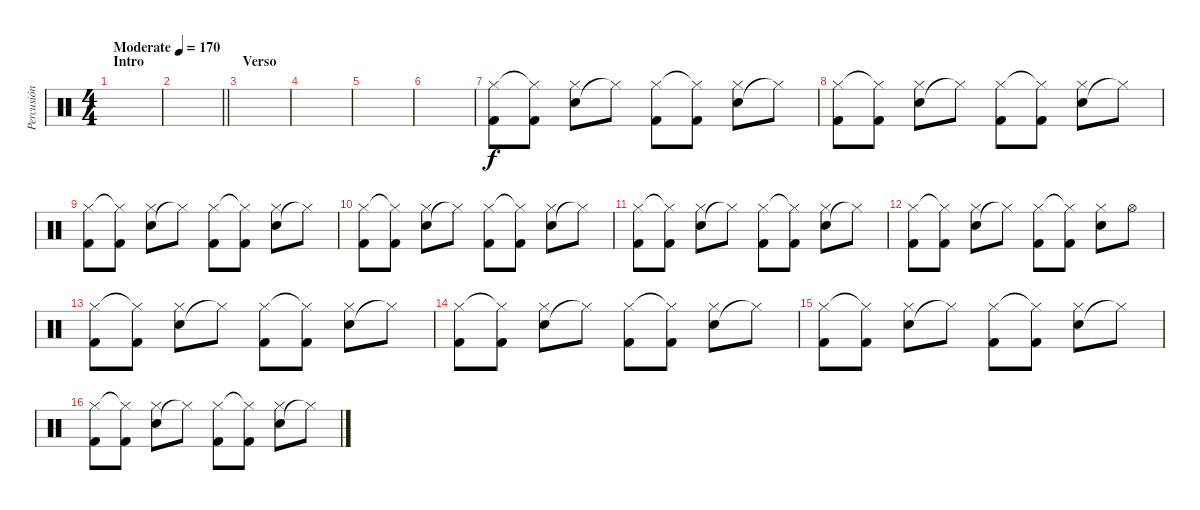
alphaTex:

\track ("Percusión" "Percusión") {instrument percussion}
\staff {score}
\articulation defaults
\ts (4 4)
\section ("" "Intro")
\tempo (170 "Moderate")
\clef neutral
\ks c
|
\barLineRight lightlight
|
\section ("" "Verso")
|
|
|
|
("Kick (hit) 2" "Hi-Hat (closed)").8 ("Kick (hit) 2" "Hi-Hat (closed)"{t}).8 ("Snare (hit) 2" "Hi-Hat (closed)").8 "Hi-Hat (closed)"{t}.8 ("Kick (hit) 2" "Hi-Hat (closed)").8 ("Kick (hit) 2" "Hi-Hat (closed)"{t}).8 ("Snare (hit) 2" "Hi-Hat (closed)").8 "Hi-Hat (closed)"{t}.8 |
("Kick (hit) 2" "Hi-Hat (closed)").8 ("Kick (hit) 2" "Hi-Hat (closed)"{t}).8 ("Snare (hit) 2" "Hi-Hat (closed)").8 "Hi-Hat (closed)"{t}.8 ("Kick (hit) 2" "Hi-Hat (closed)").8 ("Kick (hit) 2" "Hi-Hat (closed)"{t}).8 ("Snare (hit) 2" "Hi-Hat (closed)").8 "Hi-Hat (closed)"{t}.8 |
("Kick (hit) 2" "Hi-Hat (closed)").8 ("Kick (hit) 2" "Hi-Hat (closed)"{t}).8 ("Snare (hit) 2" "Hi-Hat (closed)").8 "Hi-Hat (closed)"{t}.8 ("Kick (hit) 2" "Hi-Hat (closed)").8 ("Kick (hit) 2" "Hi-Hat (closed)"{t}).8 ("Snare (hit) 2" "Hi-Hat (closed)").8 "Hi-Hat (closed)"{t}.8 |
("Kick (hit) 2" "Hi-Hat (closed)").8 ("Kick (hit) 2" "Hi-Hat (closed)"{t}).8 ("Snare (hit) 2" "Hi-Hat (closed)").8 "Hi-Hat (closed)"{t}.8 ("Kick (hit) 2" "Hi-Hat (closed)").8 ("Kick (hit) 2" "Hi-Hat (closed)"{t}).8 ("Snare (hit) 2" "Hi-Hat (closed)").8 "Hi-Hat (closed)"{t}.8 |
("Kick (hit) 2" "Hi-Hat (closed)").8 ("Kick (hit) 2" "Hi-Hat (closed)"{t}).8 ("Snare (hit) 2" "Hi-Hat (closed)").8 "Hi-Hat (closed)"{t}.8 ("Kick (hit) 2" "Hi-Hat (closed)").8 ("Kick (hit) 2" "Hi-Hat (closed)"{t}).8 ("Snare (hit) 2" "Hi-Hat (closed)").8 "Hi-Hat (closed)"{t}.8 |
("Kick (hit) 2" "Hi-Hat (closed)").8 ("Kick (hit) 2" "Hi-Hat (closed)"{t}).8 ("Snare (hit) 2" "Hi-Hat (closed)").8 "Hi-Hat (closed)"{t}.8 ("Kick (hit) 2" "Hi-Hat (closed)").8 ("Kick (hit) 2" "Hi-Hat (closed)"{t}).8 ("Snare (hit) 2" "Hi-Hat (closed)").8 "Hi-Hat (open)".8 |
("Kick (hit) 2" "Hi-Hat (closed)").8 ("Kick (hit) 2" "Hi-Hat (closed)"{t}).8 ("Snare (hit) 2" "Hi-Hat (closed)").8 "Hi-Hat (closed)"{t}.8 ("Kick (hit) 2" "Hi-Hat (closed)").8 ("Kick (hit) 2" "Hi-Hat (closed)"{t}).8 ("Snare (hit) 2" "Hi-Hat (closed)").8 "Hi-Hat (closed)"{t}.8 |
("Kick (hit) 2" "Hi-Hat (closed)").8 ("Kick (hit) 2" "Hi-Hat (closed)"{t}).8 ("Snare (hit) 2" "Hi-Hat (closed)").8 "Hi-Hat (closed)"{t}.8 ("Kick (hit) 2" "Hi-Hat (closed)").8 ("Kick (hit) 2" "Hi-Hat (closed)"{t}).8 ("Snare (hit) 2" "Hi-Hat (closed)").8 "Hi-Hat (closed)"{t}.8 |
("Kick (hit) 2" "Hi-Hat (closed)").8 ("Kick (hit) 2" "Hi-Hat (closed)"{t}).8 ("Snare (hit) 2" "Hi-Hat (closed)").8 "Hi-Hat (closed)"{t}.8 ("Kick (hit) 2" "Hi-Hat (closed)").8 ("Kick (hit) 2" "Hi-Hat (closed)"{t}).8 ("Snare (hit) 2" "Hi-Hat (closed)").8 "Hi-Hat (closed)"{t}.8 |
("Kick (hit) 2" "Hi-Hat (closed)").8 ("Kick (hit) 2" "Hi-Hat (closed)"{t}).8 ("Snare (hit) 2" "Hi-Hat (closed)").8 "Hi-Hat (closed)"{t}.8 ("Kick (hit) 2" "Hi-Hat (closed)").8 ("Kick (hit) 2" "Hi-Hat (closed)"{t}).8 ("Snare (hit) 2" "Hi-Hat (closed)").8 "Hi-Hat (closed)"{t}.8
